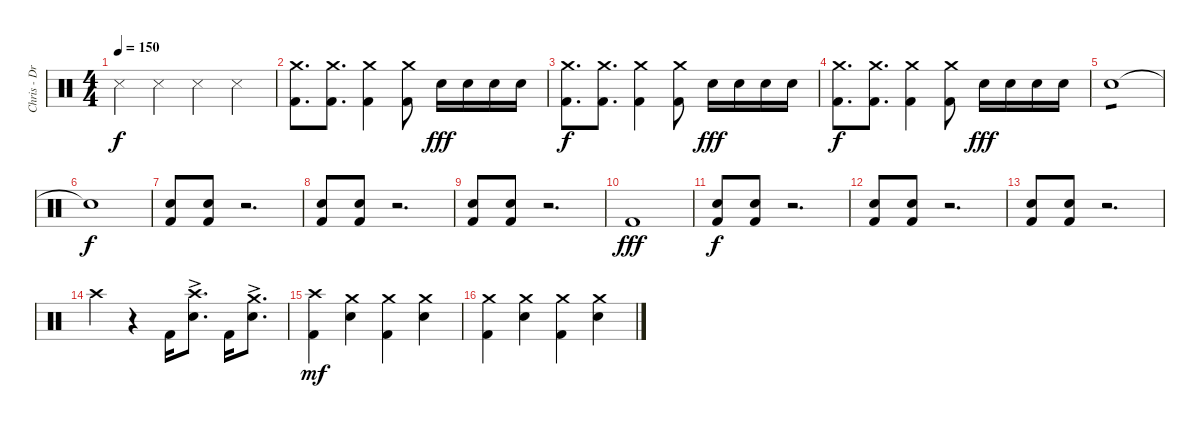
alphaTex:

\track ("Chris - Drums" "Chris - Dr") {instrument percussion}
\staff {score}
\articulation defaults
\ts (4 4)
\tempo 150
\clef neutral
\ks c "Snare (side stick) 3".4{dy f} "Snare (side stick) 3".4 "Snare (side stick) 3".4 "Snare (side stick) 3".4
|
("Crash medium (hit)" "Kick (hit) 2").8{d} ("Crash medium (hit)" "Kick (hit) 2").8{d} ("Crash medium (hit)" "Kick (hit) 2").4 ("Crash medium (hit)" "Kick (hit) 2").8 "Electric Snare (hit)".16{dy fff} "Electric Snare (hit)".16 "Electric Snare (hit)".16 "Electric Snare (hit)".16 |
("Crash medium (hit)" "Kick (hit) 2").8{d dy f} ("Crash medium (hit)" "Kick (hit) 2").8{d} ("Crash medium (hit)" "Kick (hit) 2").4 ("Crash medium (hit)" "Kick (hit) 2").8 "Electric Snare (hit)".16{dy fff} "Electric Snare (hit)".16 "Electric Snare (hit)".16 "Electric Snare (hit)".16 |
("Crash medium (hit)" "Kick (hit) 2").8{d dy f} ("Crash medium (hit)" "Kick (hit) 2").8{d} ("Crash medium (hit)" "Kick (hit) 2").4 ("Crash medium (hit)" "Kick (hit) 2").8 "Electric Snare (hit)".16{dy fff} "Electric Snare (hit)".16 "Electric Snare (hit)".16 "Electric Snare (hit)".16{volume 0} |
"Electric Snare (hit)".1{tp 1 volume 14} |
"Snare (hit)"{t}.1{dy f} |
("Electric Snare (hit)" "Kick (hit) 2").8{volume 16} ("Electric Snare (hit)" "Kick (hit) 2").8 r.2{d} |
("Electric Snare (hit)" "Kick (hit) 2").8 ("Electric Snare (hit)" "Kick (hit) 2").8 r.2{d} |
("Electric Snare (hit)" "Kick (hit) 2").8 ("Electric Snare (hit)" "Kick (hit) 2").8 r.2{d} |
"Kick (hit) 2".1{dy fff} |
("Electric Snare (hit)" "Kick (hit) 2").8{dy f} ("Electric Snare (hit)" "Kick (hit) 2").8 r.2{d} |
("Electric Snare (hit)" "Kick (hit) 2").8 ("Electric Snare (hit)" "Kick (hit) 2").8 r.2{d} |
("Electric Snare (hit)" "Kick (hit) 2").8 ("Electric Snare (hit)" "Kick (hit) 2").8 r.2{d} |
"Crash high (hit)".4 r.4 "Kick (hit) 2".16 ("Crash high (hit)" "Electric Snare (hit)"{ac}).8{d} "Kick (hit) 2".16 ("Crash medium (hit)" "Electric Snare (hit)"{ac}).8{d} |
("Crash high (hit)" "Kick (hit) 2").4{dy mf} ("Crash medium (hit)" "Electric Snare (hit)").4 ("Crash medium (hit)" "Kick (hit) 2").4 ("Crash medium (hit)" "Electric Snare (hit)").4 |
("Crash medium (hit)" "Kick (hit) 2").4 ("Crash medium (hit)" "Electric Snare (hit)").4 ("Crash medium (hit)" "Kick (hit) 2").4 ("Crash medium (hit)" "Electric Snare (hit)").4
